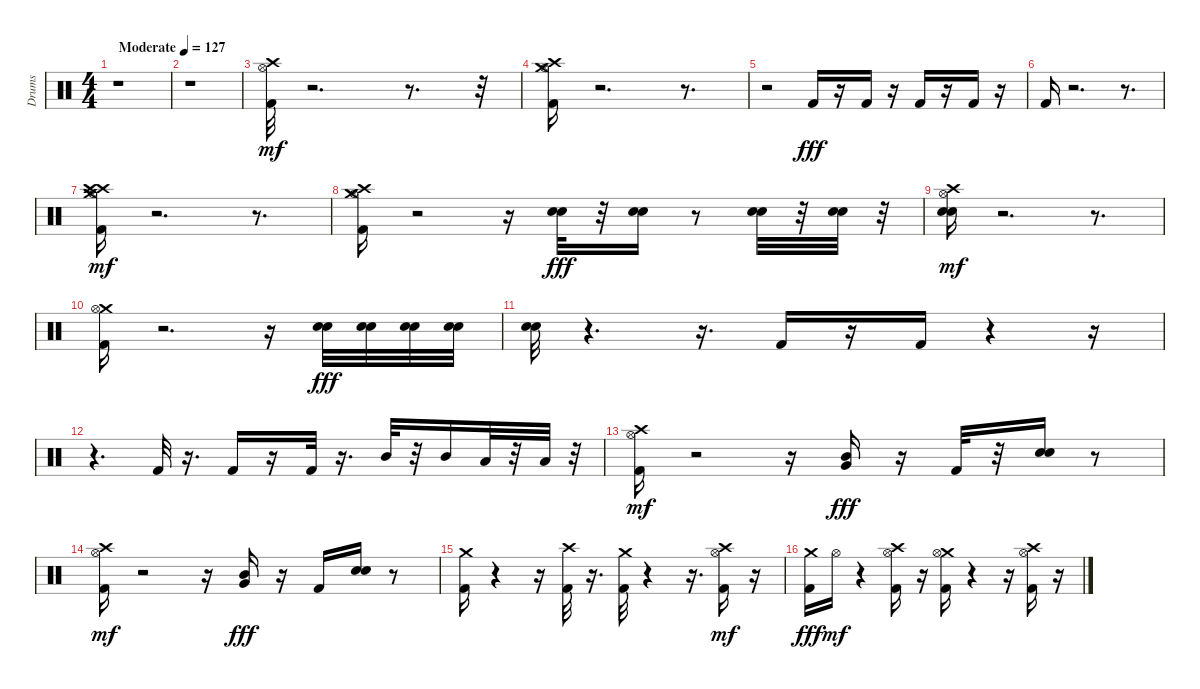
\track ("Drums" "Drums") {instrument percussion}
\staff {score}
\articulation defaults
\ts (4 4)
\tempo (127 "Moderate")
\tempo 100
\tempo (127 "Moderate")
\clef neutral
\ks c
r.1{dy mf} |
r.1 |
("Crash high (hit)" "Kick (hit) 2" "Hi-Hat (open)").32 r.2{d} r.8{d} r.32 |
("Crash medium (hit)" "Kick (hit) 2" "Hi-Hat (open)" "Crash high (hit)").16 r.2{d} r.8{d} |
r.2 "Kick (hit) 2".16{dy fff} r.16 "Kick (hit) 2".16 r.16 "Kick (hit) 2".16 r.16 "Kick (hit) 2".16 r.16 |
"Kick (hit) 2".16 r.2{d} r.8{d} |
("Crash high (hit)" "Kick (hit) 2" "Hi-Hat (open)" "Crash high (hit)" "Crash medium (hit)").16{dy mf} r.2{d} r.8{d} |
("Kick (hit) 2" "Crash medium (hit)" "Hi-Hat (open)" "Crash high (hit)").16 r.2 r.16 ("Electric Snare (hit)" "Snare (hit) 2").32{dy fff} r.32 ("Electric Snare (hit)" "Snare (hit) 2").16 r.8 ("Electric Snare (hit)" "Snare (hit) 2").32 r.32 ("Electric Snare (hit)" "Snare (hit) 2").32 r.32 |
("Electric Snare (hit)" "Snare (hit) 2" "Crash high (hit)" "Hi-Hat (open)").16{dy mf} r.2{d} r.8{d} |
("Kick (hit) 2" "Crash medium (hit)" "Hi-Hat (open)").16 r.2{d} r.16 ("Electric Snare (hit)" "Snare (hit) 2").32{dy fff} ("Electric Snare (hit)" "Snare (hit) 2").32 ("Electric Snare (hit)" "Snare (hit) 2").32 ("Electric Snare (hit)" "Snare (hit) 2").32 |
("Electric Snare (hit)" "Snare (hit) 2").32 r.4{d} r.16{d} "Kick (hit) 2".16 r.16 "Kick (hit) 2".16 r.4 r.16 |
r.4{d} "Kick (hit) 2".32 r.16{d} "Kick (hit) 2".16 r.16 "Kick (hit) 2".32 r.16{d} "Mid Tom (hit)".32 r.32 "Mid Tom (hit)".16 "Low Tom (hit)".32 r.32 "Low Tom (hit)".32 r.32 |
("Kick (hit) 2" "Crash high (hit)" "Hi-Hat (open)").16{dy mf} r.2 r.16 ("Mid Tom (hit)" "Very Low Tom (hit)").16{dy fff} r.16 "Kick (hit) 2".32 r.32 ("Electric Snare (hit)" "Snare (hit) 2").16 r.8 |
("Crash high (hit)" "Kick (hit) 2" "Hi-Hat (open)").16{dy mf} r.2 r.16 ("Mid Tom (hit)" "Very Low Tom (hit)").16{dy fff} r.16 "Kick (hit) 2".16 ("Electric Snare (hit)" "Snare (hit) 2").16 r.8 |
("Kick (hit) 2" "Crash medium (hit)").16 r.4 r.16 ("Crash high (hit)" "Kick (hit) 2").32 r.16{d} ("Kick (hit) 2" "Crash medium (hit)").32 r.4 r.16{d} ("Crash high (hit)" "Kick (hit) 2" "Hi-Hat (open)").16{dy mf} r.16 |
("Kick (hit) 2" "Crash medium (hit)").16{dy fff} "Hi-Hat (open)".16{dy mf} r.4 ("Crash high (hit)" "Kick (hit) 2" "Hi-Hat (open)").16 r.16 ("Crash medium (hit)" "Kick (hit) 2" "Hi-Hat (open)").16 r.4 r.16 ("Crash high (hit)" "Kick (hit) 2" "Hi-Hat (open)").16 r.16
